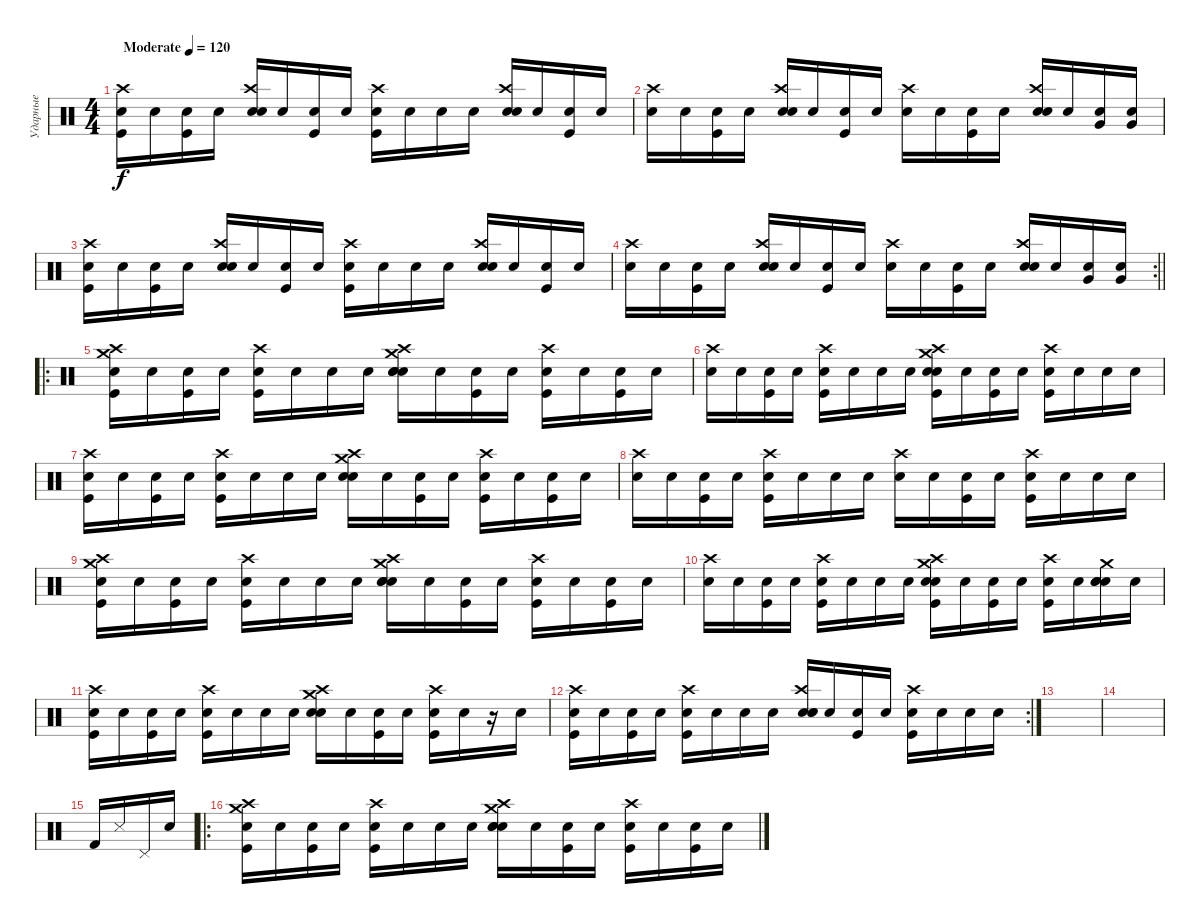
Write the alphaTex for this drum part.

\track ("Ударные" "Ударные") {instrument percussion}
\staff {score}
\articulation defaults
\ts (4 4)
\tempo (120 "Moderate")
\clef neutral
\ks c
("Snare (hit)"{x} "Kick (hit)" "Crash high (hit)").16{dy f} "Snare (hit)"{x}.16 ("Snare (hit)"{x} "Kick (hit)").16 "Snare (hit)"{x}.16 ("Snare (hit)"{x} "Electric Snare (hit)" "Crash high (hit)").16 "Snare (hit)"{x}.16 ("Snare (hit)"{x} "Kick (hit)").16 "Snare (hit)"{x}.16 ("Snare (hit)"{x} "Kick (hit)" "Crash high (hit)").16 "Snare (hit)"{x}.16 "Snare (hit)"{x}.16 "Snare (hit)"{x}.16 ("Snare (hit)"{x} "Electric Snare (hit)" "Crash high (hit)").16 "Snare (hit)"{x}.16 ("Snare (hit)"{x} "Kick (hit)").16 "Snare (hit)"{x}.16 |
("Snare (hit)"{x} "Crash high (hit)").16 "Snare (hit)"{x}.16 ("Snare (hit)"{x} "Kick (hit)").16 "Snare (hit)"{x}.16 ("Snare (hit)"{x} "Electric Snare (hit)" "Crash high (hit)").16 "Snare (hit)"{x}.16 ("Snare (hit)"{x} "Kick (hit)").16 "Snare (hit)"{x}.16 ("Snare (hit)"{x} "Crash high (hit)").16 "Snare (hit)"{x}.16 ("Snare (hit)"{x} "Kick (hit)").16 "Snare (hit)"{x}.16 ("Snare (hit)"{x} "Electric Snare (hit)" "Crash high (hit)").16 "Snare (hit)"{x}.16 ("Snare (hit)"{x} "Very Low Tom (hit)").16 ("Snare (hit)"{x} "Very Low Tom (hit)").16 |
("Snare (hit)"{x} "Kick (hit)" "Crash high (hit)").16 "Snare (hit)"{x}.16 ("Snare (hit)"{x} "Kick (hit)").16 "Snare (hit)"{x}.16 ("Snare (hit)"{x} "Electric Snare (hit)" "Crash high (hit)").16 "Snare (hit)"{x}.16 ("Snare (hit)"{x} "Kick (hit)").16 "Snare (hit)"{x}.16 ("Snare (hit)"{x} "Kick (hit)" "Crash high (hit)").16 "Snare (hit)"{x}.16 "Snare (hit)"{x}.16 "Snare (hit)"{x}.16 ("Snare (hit)"{x} "Electric Snare (hit)" "Crash high (hit)").16 "Snare (hit)"{x}.16 ("Snare (hit)"{x} "Kick (hit)").16 "Snare (hit)"{x}.16 |
\rc 2
\barLineRight lightlight
("Snare (hit)"{x} "Crash high (hit)").16 "Snare (hit)"{x}.16 ("Snare (hit)"{x} "Kick (hit)").16 "Snare (hit)"{x}.16 ("Snare (hit)"{x} "Electric Snare (hit)" "Crash high (hit)").16 "Snare (hit)"{x}.16 ("Snare (hit)"{x} "Kick (hit)").16 "Snare (hit)"{x}.16 ("Snare (hit)"{x} "Crash high (hit)").16 "Snare (hit)"{x}.16 ("Snare (hit)"{x} "Kick (hit)").16 "Snare (hit)"{x}.16 ("Snare (hit)"{x} "Electric Snare (hit)" "Crash high (hit)").16 "Snare (hit)"{x}.16 ("Snare (hit)"{x} "Very Low Tom (hit)").16 ("Snare (hit)"{x} "Very Low Tom (hit)").16 |
\ro
("Snare (hit)"{x} "Kick (hit)" "Crash medium (hit)" "Crash high (hit)").16 "Snare (hit)"{x}.16 ("Snare (hit)"{x} "Kick (hit)").16 "Snare (hit)"{x}.16 ("Snare (hit)"{x} "Kick (hit)" "Crash high (hit)").16 "Snare (hit)"{x}.16 "Snare (hit)"{x}.16 "Snare (hit)"{x}.16 ("Snare (hit)"{x} "Crash medium (hit)" "Electric Snare (hit)" "Snare (hit) 2" "Crash high (hit)").16 "Snare (hit)"{x}.16 ("Snare (hit)"{x} "Kick (hit)").16 "Snare (hit)"{x}.16 ("Snare (hit)"{x} "Kick (hit)" "Crash high (hit)").16 "Snare (hit)"{x}.16 ("Snare (hit)"{x} "Kick (hit)").16 "Snare (hit)"{x}.16 |
("Snare (hit)"{x} "Crash high (hit)").16 "Snare (hit)"{x}.16 ("Snare (hit)"{x} "Kick (hit)").16 "Snare (hit)"{x}.16 ("Snare (hit)"{x} "Kick (hit)" "Crash high (hit)").16 "Snare (hit)"{x}.16 "Snare (hit)"{x}.16 "Snare (hit)"{x}.16 ("Snare (hit)"{x} "Electric Snare (hit)" "Crash medium (hit)" "Kick (hit)" "Crash high (hit)").16 "Snare (hit)"{x}.16 ("Snare (hit)"{x} "Kick (hit)").16 "Snare (hit)"{x}.16 ("Snare (hit)"{x} "Kick (hit)" "Crash high (hit)").16 "Snare (hit)"{x}.16 "Snare (hit)"{x}.16 "Snare (hit)"{x}.16 |
("Snare (hit)"{x} "Kick (hit)" "Crash high (hit)").16 "Snare (hit)"{x}.16 ("Snare (hit)"{x} "Kick (hit)").16 "Snare (hit)"{x}.16 ("Snare (hit)"{x} "Kick (hit)" "Crash high (hit)").16 "Snare (hit)"{x}.16 "Snare (hit)"{x}.16 "Snare (hit)"{x}.16 ("Crash medium (hit)" "Electric Snare (hit)" "Snare (hit) 2" "Crash high (hit)").16 "Snare (hit)"{x}.16 ("Snare (hit)"{x} "Kick (hit)").16 "Snare (hit)"{x}.16 ("Snare (hit)"{x} "Kick (hit)" "Crash high (hit)").16 "Snare (hit)"{x}.16 ("Snare (hit)"{x} "Kick (hit)").16 "Snare (hit)"{x}.16 |
("Snare (hit)"{x} "Crash high (hit)").16 "Snare (hit)"{x}.16 ("Snare (hit)"{x} "Kick (hit)").16 "Snare (hit)"{x}.16 ("Snare (hit)"{x} "Kick (hit)" "Crash high (hit)").16 "Snare (hit)"{x}.16 "Snare (hit)"{x}.16 "Snare (hit)"{x}.16 ("Snare (hit)"{x} "Crash high (hit)").16 "Snare (hit)"{x}.16 ("Snare (hit)"{x} "Kick (hit)").16 "Snare (hit)"{x}.16 ("Snare (hit)"{x} "Kick (hit)" "Crash high (hit)").16 "Snare (hit)"{x}.16 "Snare (hit)"{x}.16 "Snare (hit)"{x}.16 |
("Snare (hit)"{x} "Kick (hit)" "Crash medium (hit)" "Crash high (hit)").16 "Snare (hit)"{x}.16 ("Snare (hit)"{x} "Kick (hit)").16 "Snare (hit)"{x}.16 ("Snare (hit)"{x} "Kick (hit)" "Crash high (hit)").16 "Snare (hit)"{x}.16 "Snare (hit)"{x}.16 "Snare (hit)"{x}.16 ("Snare (hit)"{x} "Crash medium (hit)" "Electric Snare (hit)" "Snare (hit) 2" "Crash high (hit)").16 "Snare (hit)"{x}.16 ("Snare (hit)"{x} "Kick (hit)").16 "Snare (hit)"{x}.16 ("Snare (hit)"{x} "Kick (hit)" "Crash high (hit)").16 "Snare (hit)"{x}.16 ("Snare (hit)"{x} "Kick (hit)").16 "Snare (hit)"{x}.16 |
("Snare (hit)"{x} "Crash high (hit)").16 "Snare (hit)"{x}.16 ("Snare (hit)"{x} "Kick (hit)").16 "Snare (hit)"{x}.16 ("Snare (hit)"{x} "Kick (hit)" "Crash high (hit)").16 "Snare (hit)"{x}.16 "Snare (hit)"{x}.16 "Snare (hit)"{x}.16 ("Snare (hit)"{x} "Electric Snare (hit)" "Crash medium (hit)" "Kick (hit)" "Crash high (hit)").16 "Snare (hit)"{x}.16 ("Snare (hit)"{x} "Kick (hit)").16 "Snare (hit)"{x}.16 ("Snare (hit)"{x} "Kick (hit)" "Crash high (hit)").16 "Snare (hit)"{x}.16 ("Snare (hit)"{x} "Electric Snare (hit)" "Crash medium (hit)" "Snare (hit) 2").16 "Snare (hit)"{x}.16 |
("Snare (hit)"{x} "Kick (hit)" "Crash high (hit)").16 "Snare (hit)"{x}.16 ("Snare (hit)"{x} "Kick (hit)").16 "Snare (hit)"{x}.16 ("Snare (hit)"{x} "Kick (hit)" "Crash high (hit)").16 "Snare (hit)"{x}.16 "Snare (hit)"{x}.16 "Snare (hit)"{x}.16 ("Crash medium (hit)" "Electric Snare (hit)" "Snare (hit) 2" "Crash high (hit)").16 "Snare (hit)"{x}.16 ("Snare (hit)"{x} "Kick (hit)").16 "Snare (hit)"{x}.16 ("Snare (hit)"{x} "Kick (hit)" "Crash high (hit)").16 "Snare (hit)"{x}.16 r.16 "Snare (hit)"{x}.16 |
\rc 2
("Snare (hit)"{x} "Kick (hit)" "Crash high (hit)").16 "Snare (hit)"{x}.16 ("Snare (hit)"{x} "Kick (hit)").16 "Snare (hit)"{x}.16 ("Snare (hit)"{x} "Kick (hit)" "Crash high (hit)").16 "Snare (hit)"{x}.16 "Snare (hit)"{x}.16 "Snare (hit)"{x}.16 ("Snare (hit)"{x} "Snare (hit) 2" "Electric Snare (hit)" "Crash high (hit)").16 "Snare (hit)"{x}.16 ("Snare (hit)"{x} "Kick (hit)").16 "Snare (hit)"{x}.16 ("Snare (hit)"{x} "Kick (hit)" "Crash high (hit)").16 "Snare (hit)"{x}.16 "Snare (hit)"{x}.16 "Snare (hit)"{x}.16 |
|
|
"Kick (hit) 2".16 "Snare (side stick) 3".16 "Pedal Hi-Hat (hit)".16 "Snare (hit) 2".16 |
\ro
("Snare (hit)"{x} "Kick (hit)" "Crash medium (hit)" "Crash high (hit)").16 "Snare (hit)"{x}.16 ("Snare (hit)"{x} "Kick (hit)").16 "Snare (hit)"{x}.16 ("Snare (hit)"{x} "Kick (hit)" "Crash high (hit)").16 "Snare (hit)"{x}.16 "Snare (hit)"{x}.16 "Snare (hit)"{x}.16 ("Snare (hit)"{x} "Crash medium (hit)" "Electric Snare (hit)" "Snare (hit) 2" "Crash high (hit)").16 "Snare (hit)"{x}.16 ("Snare (hit)"{x} "Kick (hit)").16 "Snare (hit)"{x}.16 ("Snare (hit)"{x} "Kick (hit)" "Crash high (hit)").16 "Snare (hit)"{x}.16 ("Snare (hit)"{x} "Kick (hit)").16 "Snare (hit)"{x}.16
